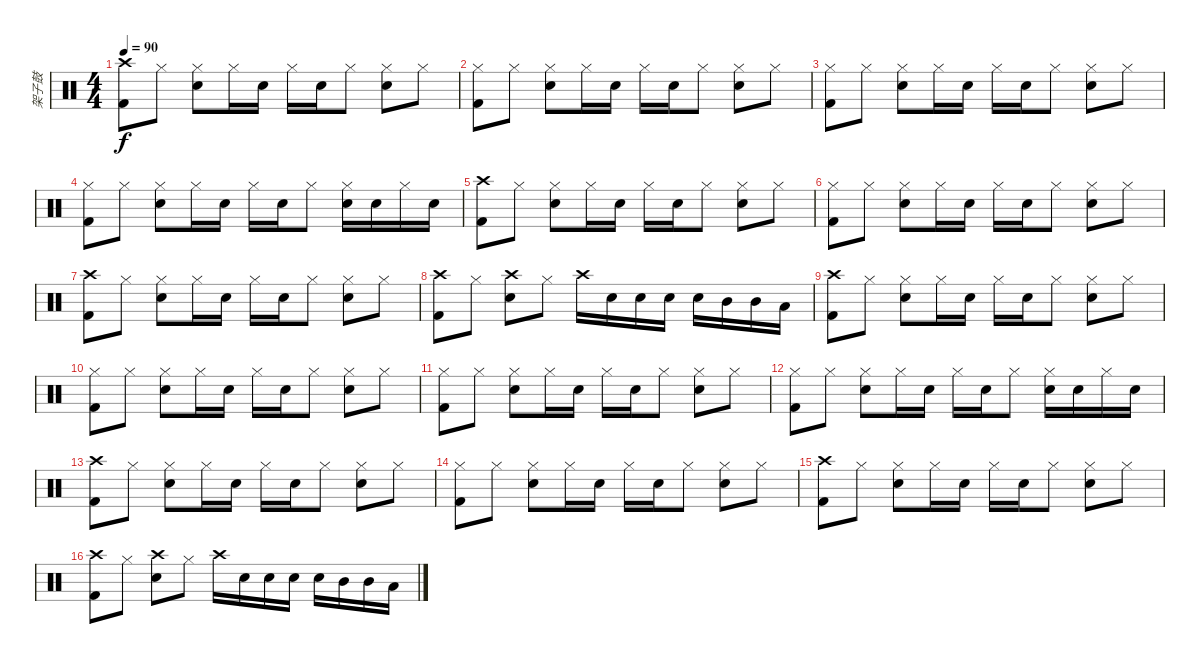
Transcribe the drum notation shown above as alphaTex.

\track ("架子鼓" "架子鼓") {instrument percussion}
\staff {score}
\articulation defaults
\ts (4 4)
\tempo 90
\clef neutral
\ks c
("Crash high (hit)" "Kick (hit) 2").8{dy f} "Hi-Hat (closed)".8 ("Hi-Hat (closed)" "Snare (hit) 2").8 "Hi-Hat (closed)".16 "Snare (hit) 2".16 "Hi-Hat (closed)".16 "Snare (hit) 2".16 "Hi-Hat (closed)".8 ("Hi-Hat (closed)" "Snare (hit) 2").8 "Hi-Hat (closed)".8 |
("Hi-Hat (closed)" "Kick (hit) 2").8 "Hi-Hat (closed)".8 ("Hi-Hat (closed)" "Snare (hit) 2").8 "Hi-Hat (closed)".16 "Snare (hit) 2".16 "Hi-Hat (closed)".16 "Snare (hit) 2".16 "Hi-Hat (closed)".8 ("Hi-Hat (closed)" "Snare (hit) 2").8 "Hi-Hat (closed)".8 |
("Hi-Hat (closed)" "Kick (hit) 2").8 "Hi-Hat (closed)".8 ("Hi-Hat (closed)" "Snare (hit) 2").8 "Hi-Hat (closed)".16 "Snare (hit) 2".16 "Hi-Hat (closed)".16 "Snare (hit) 2".16 "Hi-Hat (closed)".8 ("Hi-Hat (closed)" "Snare (hit) 2").8 "Hi-Hat (closed)".8 |
("Hi-Hat (closed)" "Kick (hit) 2").8 "Hi-Hat (closed)".8 ("Hi-Hat (closed)" "Snare (hit) 2").8 "Hi-Hat (closed)".16 "Snare (hit) 2".16 "Hi-Hat (closed)".16 "Snare (hit) 2".16 "Hi-Hat (closed)".8 ("Hi-Hat (closed)" "Snare (hit) 2").16 "Snare (hit) 2".16 "Hi-Hat (closed)".16 "Snare (hit) 2".16 |
("Crash high (hit)" "Kick (hit) 2").8 "Hi-Hat (closed)".8 ("Hi-Hat (closed)" "Snare (hit) 2").8 "Hi-Hat (closed)".16 "Snare (hit) 2".16 "Hi-Hat (closed)".16 "Snare (hit) 2".16 "Hi-Hat (closed)".8 ("Hi-Hat (closed)" "Snare (hit) 2").8 "Hi-Hat (closed)".8 |
("Hi-Hat (closed)" "Kick (hit) 2").8 "Hi-Hat (closed)".8 ("Hi-Hat (closed)" "Snare (hit) 2").8 "Hi-Hat (closed)".16 "Snare (hit) 2".16 "Hi-Hat (closed)".16 "Snare (hit) 2".16 "Hi-Hat (closed)".8 ("Hi-Hat (closed)" "Snare (hit) 2").8 "Hi-Hat (closed)".8 |
("Crash high (hit)" "Kick (hit) 2").8 "Hi-Hat (closed)".8 ("Hi-Hat (closed)" "Snare (hit) 2").8 "Hi-Hat (closed)".16 "Snare (hit) 2".16 "Hi-Hat (closed)".16 "Snare (hit) 2".16 "Hi-Hat (closed)".8 ("Hi-Hat (closed)" "Snare (hit) 2").8 "Hi-Hat (closed)".8 |
("Crash high (hit)" "Kick (hit) 2").8 "Hi-Hat (closed)".8 ("Crash high (hit)" "Snare (hit) 2").8 "Hi-Hat (closed)".8 "Crash high (hit)".16 "Snare (hit) 2".16 "Snare (hit) 2".16 "Snare (hit) 2".16 "Snare (hit) 2".16 "Mid Tom (hit)".16 "Mid Tom (hit)".16 "Low Tom (hit)".16 |
("Crash high (hit)" "Kick (hit) 2").8 "Hi-Hat (closed)".8 ("Hi-Hat (closed)" "Snare (hit) 2").8 "Hi-Hat (closed)".16 "Snare (hit) 2".16 "Hi-Hat (closed)".16 "Snare (hit) 2".16 "Hi-Hat (closed)".8 ("Hi-Hat (closed)" "Snare (hit) 2").8 "Hi-Hat (closed)".8 |
("Hi-Hat (closed)" "Kick (hit) 2").8 "Hi-Hat (closed)".8 ("Hi-Hat (closed)" "Snare (hit) 2").8 "Hi-Hat (closed)".16 "Snare (hit) 2".16 "Hi-Hat (closed)".16 "Snare (hit) 2".16 "Hi-Hat (closed)".8 ("Hi-Hat (closed)" "Snare (hit) 2").8 "Hi-Hat (closed)".8 |
("Hi-Hat (closed)" "Kick (hit) 2").8 "Hi-Hat (closed)".8 ("Hi-Hat (closed)" "Snare (hit) 2").8 "Hi-Hat (closed)".16 "Snare (hit) 2".16 "Hi-Hat (closed)".16 "Snare (hit) 2".16 "Hi-Hat (closed)".8 ("Hi-Hat (closed)" "Snare (hit) 2").8 "Hi-Hat (closed)".8 |
("Hi-Hat (closed)" "Kick (hit) 2").8 "Hi-Hat (closed)".8 ("Hi-Hat (closed)" "Snare (hit) 2").8 "Hi-Hat (closed)".16 "Snare (hit) 2".16 "Hi-Hat (closed)".16 "Snare (hit) 2".16 "Hi-Hat (closed)".8 ("Hi-Hat (closed)" "Snare (hit) 2").16 "Snare (hit) 2".16 "Hi-Hat (closed)".16 "Snare (hit) 2".16 |
("Crash high (hit)" "Kick (hit) 2").8 "Hi-Hat (closed)".8 ("Hi-Hat (closed)" "Snare (hit) 2").8 "Hi-Hat (closed)".16 "Snare (hit) 2".16 "Hi-Hat (closed)".16 "Snare (hit) 2".16 "Hi-Hat (closed)".8 ("Hi-Hat (closed)" "Snare (hit) 2").8 "Hi-Hat (closed)".8 |
("Hi-Hat (closed)" "Kick (hit) 2").8 "Hi-Hat (closed)".8 ("Hi-Hat (closed)" "Snare (hit) 2").8 "Hi-Hat (closed)".16 "Snare (hit) 2".16 "Hi-Hat (closed)".16 "Snare (hit) 2".16 "Hi-Hat (closed)".8 ("Hi-Hat (closed)" "Snare (hit) 2").8 "Hi-Hat (closed)".8 |
("Crash high (hit)" "Kick (hit) 2").8 "Hi-Hat (closed)".8 ("Hi-Hat (closed)" "Snare (hit) 2").8 "Hi-Hat (closed)".16 "Snare (hit) 2".16 "Hi-Hat (closed)".16 "Snare (hit) 2".16 "Hi-Hat (closed)".8 ("Hi-Hat (closed)" "Snare (hit) 2").8 "Hi-Hat (closed)".8 |
("Crash high (hit)" "Kick (hit) 2").8 "Hi-Hat (closed)".8 ("Crash high (hit)" "Snare (hit) 2").8 "Hi-Hat (closed)".8 "Crash high (hit)".16 "Snare (hit) 2".16 "Snare (hit) 2".16 "Snare (hit) 2".16 "Snare (hit) 2".16 "Mid Tom (hit)".16 "Mid Tom (hit)".16 "Low Tom (hit)".16
